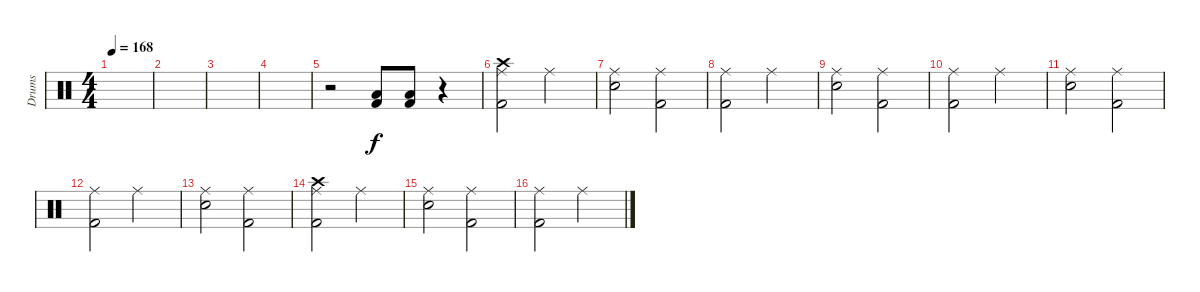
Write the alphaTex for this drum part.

\track ("Drums" "Drums") {instrument percussion}
\staff {score}
\articulation defaults
\ts (4 4)
\tempo 168
\clef neutral
\ks c
|
|
|
|
r.2{volume 16} ("Kick (hit) 2" "Low Floor Tom (hit)").8 ("Kick (hit) 2" "Low Floor Tom (hit)").8 r.4 |
("Crash high (hit)" "Ride (middle)" "Kick (hit) 2").2{volume 13} "Ride (middle)".2 |
("Ride (middle)" "Snare (hit) 2").2 ("Ride (middle)" "Kick (hit) 2").2 |
("Ride (middle)" "Kick (hit) 2").2{volume 13} "Ride (middle)".2 |
("Ride (middle)" "Snare (hit) 2").2 ("Ride (middle)" "Kick (hit) 2").2 |
("Ride (middle)" "Kick (hit) 2").2{volume 13} "Ride (middle)".2 |
("Ride (middle)" "Snare (hit) 2").2 ("Ride (middle)" "Kick (hit) 2").2 |
("Ride (middle)" "Kick (hit) 2").2{volume 13} "Ride (middle)".2 |
("Ride (middle)" "Snare (hit) 2").2 ("Ride (middle)" "Kick (hit) 2").2 |
("Crash high (hit)" "Ride (middle)" "Kick (hit) 2").2{volume 13} "Ride (middle)".2 |
("Ride (middle)" "Snare (hit) 2").2 ("Ride (middle)" "Kick (hit) 2").2 |
("Ride (middle)" "Kick (hit) 2").2{volume 13} "Ride (middle)".2
